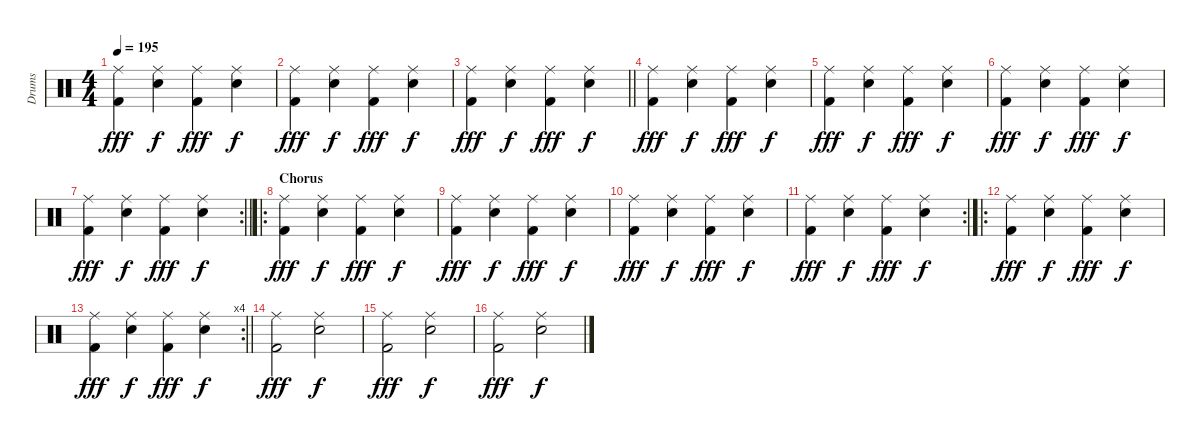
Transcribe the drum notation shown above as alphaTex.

\track ("Drums" "Drums") {instrument percussion}
\staff {score}
\articulation defaults
\ts (4 4)
\tempo 195
\clef neutral
\ks c
("Ride (middle)" "Kick (hit) 2").4{dy fff} ("Ride (middle)" "Snare (hit) 2").4{dy f} ("Ride (middle)" "Kick (hit) 2").4{dy fff} ("Ride (middle)" "Snare (hit) 2").4{dy f} |
("Ride (middle)" "Kick (hit) 2").4{dy fff} ("Ride (middle)" "Snare (hit) 2").4{dy f} ("Ride (middle)" "Kick (hit) 2").4{dy fff} ("Ride (middle)" "Snare (hit) 2").4{dy f} |
\barLineRight lightlight
("Ride (middle)" "Kick (hit) 2").4{dy fff} ("Ride (middle)" "Snare (hit) 2").4{dy f} ("Ride (middle)" "Kick (hit) 2").4{dy fff} ("Ride (middle)" "Snare (hit) 2").4{dy f} |
("Ride (middle)" "Kick (hit) 2").4{dy fff} ("Ride (middle)" "Snare (hit) 2").4{dy f} ("Ride (middle)" "Kick (hit) 2").4{dy fff} ("Ride (middle)" "Snare (hit) 2").4{dy f} |
("Ride (middle)" "Kick (hit) 2").4{dy fff} ("Ride (middle)" "Snare (hit) 2").4{dy f} ("Ride (middle)" "Kick (hit) 2").4{dy fff} ("Ride (middle)" "Snare (hit) 2").4{dy f} |
("Ride (middle)" "Kick (hit) 2").4{dy fff} ("Ride (middle)" "Snare (hit) 2").4{dy f} ("Ride (middle)" "Kick (hit) 2").4{dy fff} ("Ride (middle)" "Snare (hit) 2").4{dy f} |
\rc 2
\barLineRight lightlight
("Ride (middle)" "Kick (hit) 2").4{dy fff} ("Ride (middle)" "Snare (hit) 2").4{dy f} ("Ride (middle)" "Kick (hit) 2").4{dy fff} ("Ride (middle)" "Snare (hit) 2").4{dy f} |
\ro
\section ("" "Chorus")
("Ride (middle)" "Kick (hit) 2").4{dy fff} ("Ride (middle)" "Snare (hit) 2").4{dy f} ("Ride (middle)" "Kick (hit) 2").4{dy fff} ("Ride (middle)" "Snare (hit) 2").4{dy f} |
("Ride (middle)" "Kick (hit) 2").4{dy fff} ("Ride (middle)" "Snare (hit) 2").4{dy f} ("Ride (middle)" "Kick (hit) 2").4{dy fff} ("Ride (middle)" "Snare (hit) 2").4{dy f} |
("Ride (middle)" "Kick (hit) 2").4{dy fff} ("Ride (middle)" "Snare (hit) 2").4{dy f} ("Ride (middle)" "Kick (hit) 2").4{dy fff} ("Ride (middle)" "Snare (hit) 2").4{dy f} |
\rc 2
("Ride (middle)" "Kick (hit) 2").4{dy fff} ("Ride (middle)" "Snare (hit) 2").4{dy f} ("Ride (middle)" "Kick (hit) 2").4{dy fff} ("Ride (middle)" "Snare (hit) 2").4{dy f} |
\ro
("Ride (middle)" "Kick (hit) 2").4{dy fff} ("Ride (middle)" "Snare (hit) 2").4{dy f} ("Ride (middle)" "Kick (hit) 2").4{dy fff} ("Ride (middle)" "Snare (hit) 2").4{dy f} |
\rc 4
\barLineRight lightlight
("Ride (middle)" "Kick (hit) 2").4{dy fff} ("Ride (middle)" "Snare (hit) 2").4{dy f} ("Ride (middle)" "Kick (hit) 2").4{dy fff} ("Ride (middle)" "Snare (hit) 2").4{dy f} |
("Ride (middle)" "Kick (hit) 2").2{dy fff} ("Ride (middle)" "Snare (hit) 2").2{dy f} |
("Ride (middle)" "Kick (hit) 2").2{dy fff} ("Ride (middle)" "Snare (hit) 2").2{dy f} |
("Ride (middle)" "Kick (hit) 2").2{dy fff} ("Ride (middle)" "Snare (hit) 2").2{dy f}
